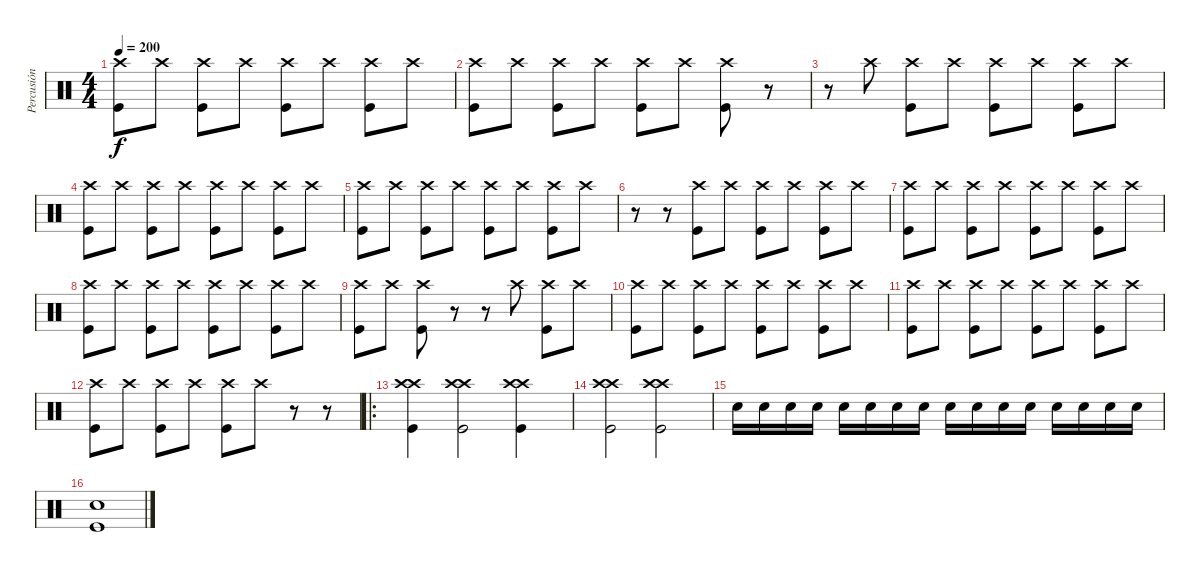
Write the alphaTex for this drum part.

\track ("Percusión" "Percusión") {instrument percussion}
\staff {score}
\articulation defaults
\ts (4 4)
\tempo 200
\clef neutral
\ks c
("Crash high (hit)" "Kick (hit)").8{dy f} "Crash high (hit)".8 ("Crash high (hit)" "Kick (hit)").8 "Crash high (hit)".8 ("Crash high (hit)" "Kick (hit)").8 "Crash high (hit)".8 ("Crash high (hit)" "Kick (hit)").8 "Crash high (hit)".8 |
("Crash high (hit)" "Kick (hit)").8 "Crash high (hit)".8 ("Crash high (hit)" "Kick (hit)").8 "Crash high (hit)".8 ("Crash high (hit)" "Kick (hit)").8 "Crash high (hit)".8 ("Crash high (hit)" "Kick (hit)").8 r.8 |
r.8 "Crash high (hit)".8 ("Crash high (hit)" "Kick (hit)").8 "Crash high (hit)".8 ("Crash high (hit)" "Kick (hit)").8 "Crash high (hit)".8 ("Crash high (hit)" "Kick (hit)").8 "Crash high (hit)".8 |
("Crash high (hit)" "Kick (hit)").8 "Crash high (hit)".8 ("Crash high (hit)" "Kick (hit)").8 "Crash high (hit)".8 ("Crash high (hit)" "Kick (hit)").8 "Crash high (hit)".8 ("Crash high (hit)" "Kick (hit)").8 "Crash high (hit)".8 |
("Crash high (hit)" "Kick (hit)").8 "Crash high (hit)".8 ("Crash high (hit)" "Kick (hit)").8 "Crash high (hit)".8 ("Crash high (hit)" "Kick (hit)").8 "Crash high (hit)".8 ("Crash high (hit)" "Kick (hit)").8 "Crash high (hit)".8 |
r.8 r.8 ("Crash high (hit)" "Kick (hit)").8 "Crash high (hit)".8 ("Crash high (hit)" "Kick (hit)").8 "Crash high (hit)".8 ("Crash high (hit)" "Kick (hit)").8 "Crash high (hit)".8 |
("Crash high (hit)" "Kick (hit)").8 "Crash high (hit)".8 ("Crash high (hit)" "Kick (hit)").8 "Crash high (hit)".8 ("Crash high (hit)" "Kick (hit)").8 "Crash high (hit)".8 ("Crash high (hit)" "Kick (hit)").8 "Crash high (hit)".8 |
("Crash high (hit)" "Kick (hit)").8 "Crash high (hit)".8 ("Crash high (hit)" "Kick (hit)").8 "Crash high (hit)".8 ("Crash high (hit)" "Kick (hit)").8 "Crash high (hit)".8 ("Crash high (hit)" "Kick (hit)").8 "Crash high (hit)".8 |
("Crash high (hit)" "Kick (hit)").8 "Crash high (hit)".8 ("Crash high (hit)" "Kick (hit)").8 r.8 r.8 "Crash high (hit)".8 ("Crash high (hit)" "Kick (hit)").8 "Crash high (hit)".8 |
("Crash high (hit)" "Kick (hit)").8 "Crash high (hit)".8 ("Crash high (hit)" "Kick (hit)").8 "Crash high (hit)".8 ("Crash high (hit)" "Kick (hit)").8 "Crash high (hit)".8 ("Crash high (hit)" "Kick (hit)").8 "Crash high (hit)".8 |
("Crash high (hit)" "Kick (hit)").8 "Crash high (hit)".8 ("Crash high (hit)" "Kick (hit)").8 "Crash high (hit)".8 ("Crash high (hit)" "Kick (hit)").8 "Crash high (hit)".8 ("Crash high (hit)" "Kick (hit)").8 "Crash high (hit)".8 |
("Crash high (hit)" "Kick (hit)").8 "Crash high (hit)".8 ("Crash high (hit)" "Kick (hit)").8 "Crash high (hit)".8 ("Crash high (hit)" "Kick (hit)").8 "Crash high (hit)".8 r.8 r.8 |
\ro
("Crash high (hit)" "Crash high (hit)" "Kick (hit)").4 ("Crash high (hit)" "Crash high (hit)" "Kick (hit)").2 ("Crash high (hit)" "Crash high (hit)" "Kick (hit)").4 |
("Crash high (hit)" "Crash high (hit)" "Kick (hit)").2 ("Crash high (hit)" "Crash high (hit)" "Kick (hit)").2 |
"Electric Snare (hit)".16 "Electric Snare (hit)".16 "Electric Snare (hit)".16 "Electric Snare (hit)".16 "Electric Snare (hit)".16 "Electric Snare (hit)".16 "Electric Snare (hit)".16 "Electric Snare (hit)".16 "Electric Snare (hit)".16 "Electric Snare (hit)".16 "Electric Snare (hit)".16 "Electric Snare (hit)".16 "Electric Snare (hit)".16 "Electric Snare (hit)".16 "Electric Snare (hit)".16 "Electric Snare (hit)".16 |
("Electric Snare (hit)" "Kick (hit)").1
